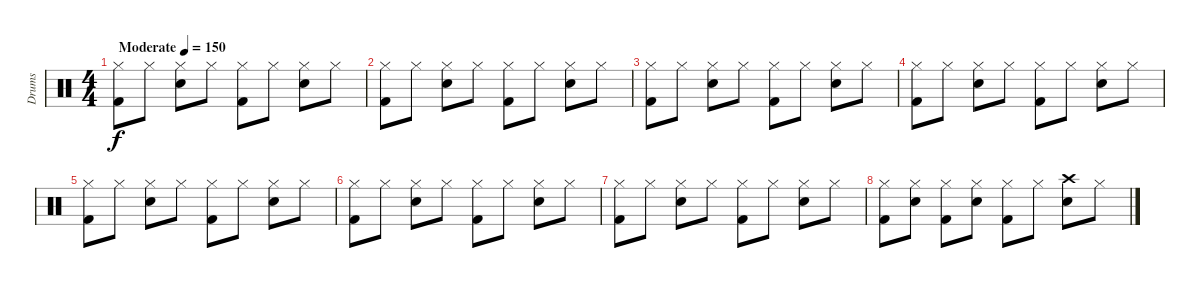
\track ("Drums" "Drums") {instrument percussion}
\staff {score}
\articulation defaults
\ts (4 4)
\tempo (150 "Moderate")
\clef neutral
\ks c
("Hi-Hat (closed)" "Kick (hit) 2").8{dy f} "Hi-Hat (closed)".8 ("Hi-Hat (closed)" "Electric Snare (hit)").8 "Hi-Hat (closed)".8 ("Hi-Hat (closed)" "Kick (hit) 2").8 "Hi-Hat (closed)".8 ("Hi-Hat (closed)" "Electric Snare (hit)").8 "Hi-Hat (closed)".8 |
("Hi-Hat (closed)" "Kick (hit) 2").8 "Hi-Hat (closed)".8 ("Hi-Hat (closed)" "Electric Snare (hit)").8 "Hi-Hat (closed)".8 ("Hi-Hat (closed)" "Kick (hit) 2").8 "Hi-Hat (closed)".8 ("Hi-Hat (closed)" "Electric Snare (hit)").8 "Hi-Hat (closed)".8 |
("Hi-Hat (closed)" "Kick (hit) 2").8 "Hi-Hat (closed)".8 ("Hi-Hat (closed)" "Electric Snare (hit)").8 "Hi-Hat (closed)".8 ("Hi-Hat (closed)" "Kick (hit) 2").8 "Hi-Hat (closed)".8 ("Hi-Hat (closed)" "Electric Snare (hit)").8 "Hi-Hat (closed)".8 |
("Hi-Hat (closed)" "Kick (hit) 2").8 "Hi-Hat (closed)".8 ("Hi-Hat (closed)" "Electric Snare (hit)").8 "Hi-Hat (closed)".8 ("Hi-Hat (closed)" "Kick (hit) 2").8 "Hi-Hat (closed)".8 ("Hi-Hat (closed)" "Electric Snare (hit)").8 "Hi-Hat (closed)".8 |
("Hi-Hat (closed)" "Kick (hit) 2").8 "Hi-Hat (closed)".8 ("Hi-Hat (closed)" "Electric Snare (hit)").8 "Hi-Hat (closed)".8 ("Hi-Hat (closed)" "Kick (hit) 2").8 "Hi-Hat (closed)".8 ("Hi-Hat (closed)" "Electric Snare (hit)").8 "Hi-Hat (closed)".8 |
("Hi-Hat (closed)" "Kick (hit) 2").8 "Hi-Hat (closed)".8 ("Hi-Hat (closed)" "Electric Snare (hit)").8 "Hi-Hat (closed)".8 ("Hi-Hat (closed)" "Kick (hit) 2").8 "Hi-Hat (closed)".8 ("Hi-Hat (closed)" "Electric Snare (hit)").8 "Hi-Hat (closed)".8 |
("Hi-Hat (closed)" "Kick (hit) 2").8 "Hi-Hat (closed)".8 ("Hi-Hat (closed)" "Electric Snare (hit)").8 "Hi-Hat (closed)".8 ("Hi-Hat (closed)" "Kick (hit) 2").8 "Hi-Hat (closed)".8 ("Hi-Hat (closed)" "Electric Snare (hit)").8 "Hi-Hat (closed)".8 |
("Hi-Hat (closed)" "Kick (hit) 2").8 ("Hi-Hat (closed)" "Electric Snare (hit)").8 ("Hi-Hat (closed)" "Kick (hit) 2").8 ("Hi-Hat (closed)" "Electric Snare (hit)").8 ("Hi-Hat (closed)" "Kick (hit) 2").8 "Hi-Hat (closed)".8 ("Crash high (hit)" "Electric Snare (hit)").8 "Hi-Hat (closed)".8
